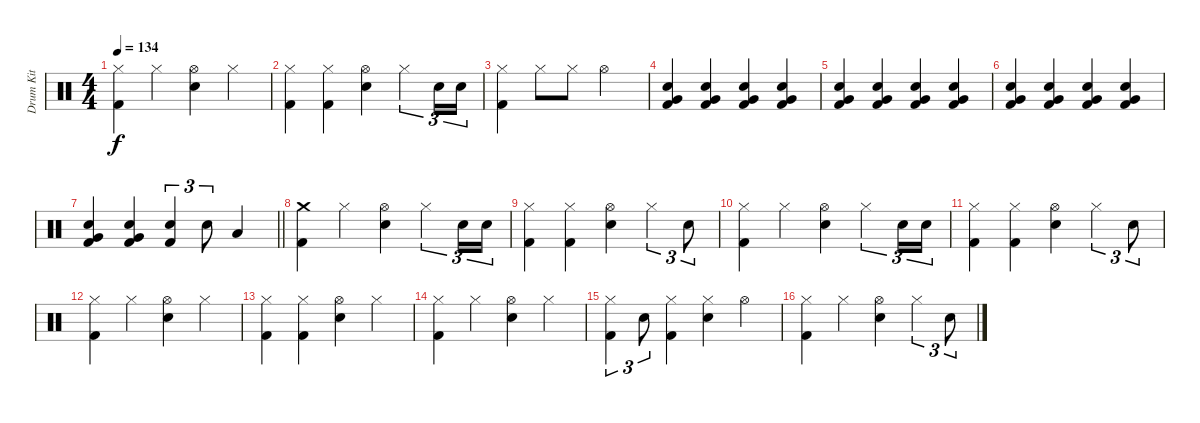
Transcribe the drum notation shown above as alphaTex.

\track ("Drum Kit" "Drum Kit") {instrument percussion}
\staff {score}
\articulation defaults
\ts (4 4)
\tempo 134
\clef neutral
\ks c
("Hi-Hat (closed)" "Kick (hit) 2").4{dy f} "Hi-Hat (closed)".4 ("Hi-Hat (open)" "Snare (hit) 2").4 "Hi-Hat (closed)".4 |
("Hi-Hat (closed)" "Kick (hit) 2").4 ("Hi-Hat (closed)" "Kick (hit) 2").4 ("Hi-Hat (open)" "Snare (hit) 2").4 "Hi-Hat (closed)".4{tu (3 2)} "Snare (hit) 2".16{tu (3 2)} "Snare (hit) 2".16{tu (3 2)} |
("Hi-Hat (closed)" "Kick (hit) 2").4 "Hi-Hat (closed)".8 "Hi-Hat (closed)".8 "Hi-Hat (open)".2 |
("Very Low Tom (hit)" "Snare (hit) 2" "Kick (hit) 2").4{volume 4} ("Very Low Tom (hit)" "Snare (hit) 2" "Kick (hit) 2").4 ("Very Low Tom (hit)" "Snare (hit) 2" "Kick (hit) 2").4{volume 11} ("Very Low Tom (hit)" "Snare (hit) 2" "Kick (hit) 2").4 |
("Very Low Tom (hit)" "Snare (hit) 2" "Kick (hit) 2").4 ("Very Low Tom (hit)" "Snare (hit) 2" "Kick (hit) 2").4 ("Very Low Tom (hit)" "Snare (hit) 2" "Kick (hit) 2").4 ("Very Low Tom (hit)" "Snare (hit) 2" "Kick (hit) 2").4 |
("Very Low Tom (hit)" "Snare (hit) 2" "Kick (hit) 2").4 ("Very Low Tom (hit)" "Snare (hit) 2" "Kick (hit) 2").4 ("Very Low Tom (hit)" "Snare (hit) 2" "Kick (hit) 2").4 ("Very Low Tom (hit)" "Snare (hit) 2" "Kick (hit) 2").4 |
\barLineRight lightlight
("Very Low Tom (hit)" "Snare (hit) 2" "Kick (hit) 2").4 ("Very Low Tom (hit)" "Snare (hit) 2" "Kick (hit) 2").4 ("Snare (hit) 2" "Kick (hit) 2").4{tu (3 2)} "Snare (hit) 2".8{tu (3 2)} "Low Tom (hit)".4 |
("Crash medium (hit)" "Kick (hit) 2").4 "Hi-Hat (closed)".4 ("Hi-Hat (open)" "Snare (hit) 2").4 "Hi-Hat (closed)".4{tu (3 2)} "Snare (hit) 2".16{tu (3 2)} "Snare (hit) 2".16{tu (3 2)} |
("Hi-Hat (closed)" "Kick (hit) 2").4 ("Hi-Hat (closed)" "Kick (hit) 2").4 ("Hi-Hat (open)" "Snare (hit) 2").4 "Hi-Hat (closed)".4{tu (3 2)} "Snare (hit) 2".8{tu (3 2)} |
("Hi-Hat (closed)" "Kick (hit) 2").4 "Hi-Hat (closed)".4 ("Hi-Hat (open)" "Snare (hit) 2").4 "Hi-Hat (closed)".4{tu (3 2)} "Snare (hit) 2".16{tu (3 2)} "Snare (hit) 2".16{tu (3 2)} |
("Hi-Hat (closed)" "Kick (hit) 2").4 ("Hi-Hat (closed)" "Kick (hit) 2").4 ("Hi-Hat (open)" "Snare (hit) 2").4 "Hi-Hat (closed)".4{tu (3 2)} "Snare (hit) 2".8{tu (3 2)} |
("Hi-Hat (closed)" "Kick (hit) 2").4 "Hi-Hat (closed)".4 ("Hi-Hat (open)" "Snare (hit) 2").4 "Hi-Hat (closed)".4 |
("Hi-Hat (closed)" "Kick (hit) 2").4 ("Hi-Hat (closed)" "Kick (hit) 2").4 ("Hi-Hat (open)" "Snare (hit) 2").4 "Hi-Hat (closed)".4 |
("Hi-Hat (closed)" "Kick (hit) 2").4 "Hi-Hat (closed)".4 ("Hi-Hat (open)" "Snare (hit) 2").4 "Hi-Hat (closed)".4 |
("Hi-Hat (closed)" "Kick (hit) 2").4{tu (3 2)} "Snare (hit) 2".8{tu (3 2)} ("Hi-Hat (closed)" "Kick (hit) 2").4 ("Hi-Hat (closed)" "Snare (hit) 2").4 "Hi-Hat (open)".4 |
("Hi-Hat (closed)" "Kick (hit) 2").4 "Hi-Hat (closed)".4 ("Hi-Hat (open)" "Snare (hit) 2").4 "Hi-Hat (closed)".4{tu (3 2)} "Snare (hit) 2".8{tu (3 2)}
